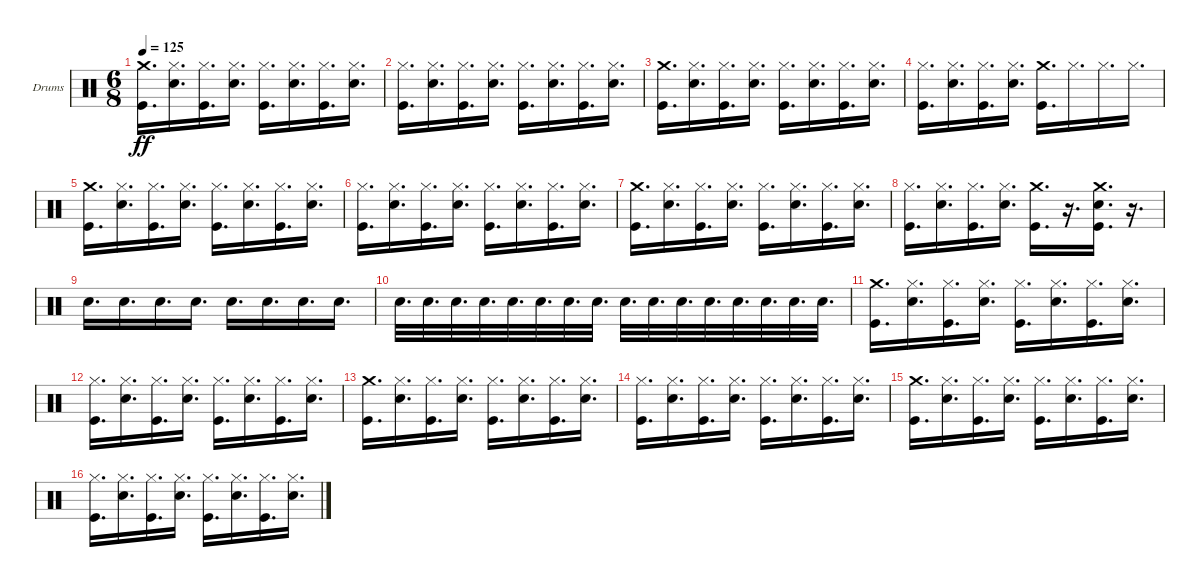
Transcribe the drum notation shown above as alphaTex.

\defaultSystemsLayout 4
\bracketExtendMode groupsimilarinstruments
\firstSystemTrackNameOrientation horizontal
\otherSystemsTrackNameOrientation horizontal
\track ("Drumkit" "Drums") {instrument percussion}
\staff {score}
\articulation defaults
\ts (6 8)
\tempo 125
\clef neutral
\ks c
("Kick (hit)" "Crash medium (hit)").16{d dy ff} ("Snare (hit) 2" "Hi-Hat (closed)").16{d} ("Kick (hit)" "Hi-Hat (closed)").16{d} ("Snare (hit) 2" "Hi-Hat (closed)").16{d} ("Kick (hit)" "Hi-Hat (closed)").16{d} ("Snare (hit) 2" "Hi-Hat (closed)").16{d} ("Kick (hit)" "Hi-Hat (closed)").16{d} ("Snare (hit) 2" "Hi-Hat (closed)").16{d} |
("Kick (hit)" "Hi-Hat (closed)").16{d} ("Snare (hit) 2" "Hi-Hat (closed)").16{d} ("Kick (hit)" "Hi-Hat (closed)").16{d} ("Snare (hit) 2" "Hi-Hat (closed)").16{d} ("Kick (hit)" "Hi-Hat (closed)").16{d} ("Snare (hit) 2" "Hi-Hat (closed)").16{d} ("Kick (hit)" "Hi-Hat (closed)").16{d} ("Snare (hit) 2" "Hi-Hat (closed)").16{d} |
("Kick (hit)" "Crash medium (hit)").16{d} ("Snare (hit) 2" "Hi-Hat (closed)").16{d} ("Kick (hit)" "Hi-Hat (closed)").16{d} ("Snare (hit) 2" "Hi-Hat (closed)").16{d} ("Kick (hit)" "Hi-Hat (closed)").16{d} ("Snare (hit) 2" "Hi-Hat (closed)").16{d} ("Kick (hit)" "Hi-Hat (closed)").16{d} ("Snare (hit) 2" "Hi-Hat (closed)").16{d} |
("Kick (hit)" "Hi-Hat (closed)").16{d} ("Snare (hit) 2" "Hi-Hat (closed)").16{d} ("Kick (hit)" "Hi-Hat (closed)").16{d} ("Snare (hit) 2" "Hi-Hat (closed)").16{d} ("Kick (hit)" "Crash medium (hit)").16{d} "Hi-Hat (closed)".16{d} "Hi-Hat (closed)".16{d} "Hi-Hat (closed)".16{d} |
("Kick (hit)" "Crash medium (hit)").16{d} ("Snare (hit) 2" "Hi-Hat (closed)").16{d} ("Kick (hit)" "Hi-Hat (closed)").16{d} ("Snare (hit) 2" "Hi-Hat (closed)").16{d} ("Kick (hit)" "Hi-Hat (closed)").16{d} ("Snare (hit) 2" "Hi-Hat (closed)").16{d} ("Kick (hit)" "Hi-Hat (closed)").16{d} ("Snare (hit) 2" "Hi-Hat (closed)").16{d} |
("Kick (hit)" "Hi-Hat (closed)").16{d} ("Snare (hit) 2" "Hi-Hat (closed)").16{d} ("Kick (hit)" "Hi-Hat (closed)").16{d} ("Snare (hit) 2" "Hi-Hat (closed)").16{d} ("Kick (hit)" "Hi-Hat (closed)").16{d} ("Snare (hit) 2" "Hi-Hat (closed)").16{d} ("Kick (hit)" "Hi-Hat (closed)").16{d} ("Snare (hit) 2" "Hi-Hat (closed)").16{d} |
("Kick (hit)" "Crash medium (hit)").16{d} ("Snare (hit) 2" "Hi-Hat (closed)").16{d} ("Kick (hit)" "Hi-Hat (closed)").16{d} ("Snare (hit) 2" "Hi-Hat (closed)").16{d} ("Kick (hit)" "Hi-Hat (closed)").16{d} ("Snare (hit) 2" "Hi-Hat (closed)").16{d} ("Kick (hit)" "Hi-Hat (closed)").16{d} ("Snare (hit) 2" "Hi-Hat (closed)").16{d} |
("Kick (hit)" "Hi-Hat (closed)").16{d} ("Snare (hit) 2" "Hi-Hat (closed)").16{d} ("Kick (hit)" "Hi-Hat (closed)").16{d} ("Snare (hit) 2" "Hi-Hat (closed)").16{d} ("Kick (hit)" "Crash medium (hit)").16{d} r.16{d} ("Crash medium (hit)" "Snare (hit) 2" "Kick (hit)").16{d} r.16{d} |
"Snare (hit) 2".16{d} "Snare (hit) 2".16{d} "Snare (hit) 2".16{d} "Snare (hit) 2".16{d} "Snare (hit) 2".16{d} "Snare (hit) 2".16{d} "Snare (hit) 2".16{d} "Snare (hit) 2".16{d} |
"Snare (hit) 2".32{d} "Snare (hit) 2".32{d} "Snare (hit) 2".32{d} "Snare (hit) 2".32{d} "Snare (hit) 2".32{d} "Snare (hit) 2".32{d} "Snare (hit) 2".32{d} "Snare (hit) 2".32{d} "Snare (hit) 2".32{d} "Snare (hit) 2".32{d} "Snare (hit) 2".32{d} "Snare (hit) 2".32{d} "Snare (hit) 2".32{d} "Snare (hit) 2".32{d} "Snare (hit) 2".32{d} "Snare (hit) 2".32{d} |
("Kick (hit)" "Crash medium (hit)").16{d} ("Snare (hit) 2" "Hi-Hat (closed)").16{d} ("Kick (hit)" "Hi-Hat (closed)").16{d} ("Snare (hit) 2" "Hi-Hat (closed)").16{d} ("Kick (hit)" "Hi-Hat (closed)").16{d} ("Snare (hit) 2" "Hi-Hat (closed)").16{d} ("Kick (hit)" "Hi-Hat (closed)").16{d} ("Snare (hit) 2" "Hi-Hat (closed)").16{d} |
("Kick (hit)" "Hi-Hat (closed)").16{d} ("Snare (hit) 2" "Hi-Hat (closed)").16{d} ("Kick (hit)" "Hi-Hat (closed)").16{d} ("Snare (hit) 2" "Hi-Hat (closed)").16{d} ("Kick (hit)" "Hi-Hat (closed)").16{d} ("Snare (hit) 2" "Hi-Hat (closed)").16{d} ("Kick (hit)" "Hi-Hat (closed)").16{d} ("Snare (hit) 2" "Hi-Hat (closed)").16{d} |
("Kick (hit)" "Crash medium (hit)").16{d} ("Snare (hit) 2" "Hi-Hat (closed)").16{d} ("Kick (hit)" "Hi-Hat (closed)").16{d} ("Snare (hit) 2" "Hi-Hat (closed)").16{d} ("Kick (hit)" "Hi-Hat (closed)").16{d} ("Snare (hit) 2" "Hi-Hat (closed)").16{d} ("Kick (hit)" "Hi-Hat (closed)").16{d} ("Snare (hit) 2" "Hi-Hat (closed)").16{d} |
("Kick (hit)" "Hi-Hat (closed)").16{d} ("Snare (hit) 2" "Hi-Hat (closed)").16{d} ("Kick (hit)" "Hi-Hat (closed)").16{d} ("Snare (hit) 2" "Hi-Hat (closed)").16{d} ("Kick (hit)" "Hi-Hat (closed)").16{d} ("Snare (hit) 2" "Hi-Hat (closed)").16{d} ("Kick (hit)" "Hi-Hat (closed)").16{d} ("Snare (hit) 2" "Hi-Hat (closed)").16{d} |
("Kick (hit)" "Crash medium (hit)").16{d} ("Snare (hit) 2" "Hi-Hat (closed)").16{d} ("Kick (hit)" "Hi-Hat (closed)").16{d} ("Snare (hit) 2" "Hi-Hat (closed)").16{d} ("Kick (hit)" "Hi-Hat (closed)").16{d} ("Snare (hit) 2" "Hi-Hat (closed)").16{d} ("Kick (hit)" "Hi-Hat (closed)").16{d} ("Snare (hit) 2" "Hi-Hat (closed)").16{d} |
("Kick (hit)" "Hi-Hat (closed)").16{d} ("Snare (hit) 2" "Hi-Hat (closed)").16{d} ("Kick (hit)" "Hi-Hat (closed)").16{d} ("Snare (hit) 2" "Hi-Hat (closed)").16{d} ("Kick (hit)" "Hi-Hat (closed)").16{d} ("Snare (hit) 2" "Hi-Hat (closed)").16{d} ("Kick (hit)" "Hi-Hat (closed)").16{d} ("Snare (hit) 2" "Hi-Hat (closed)").16{d}
